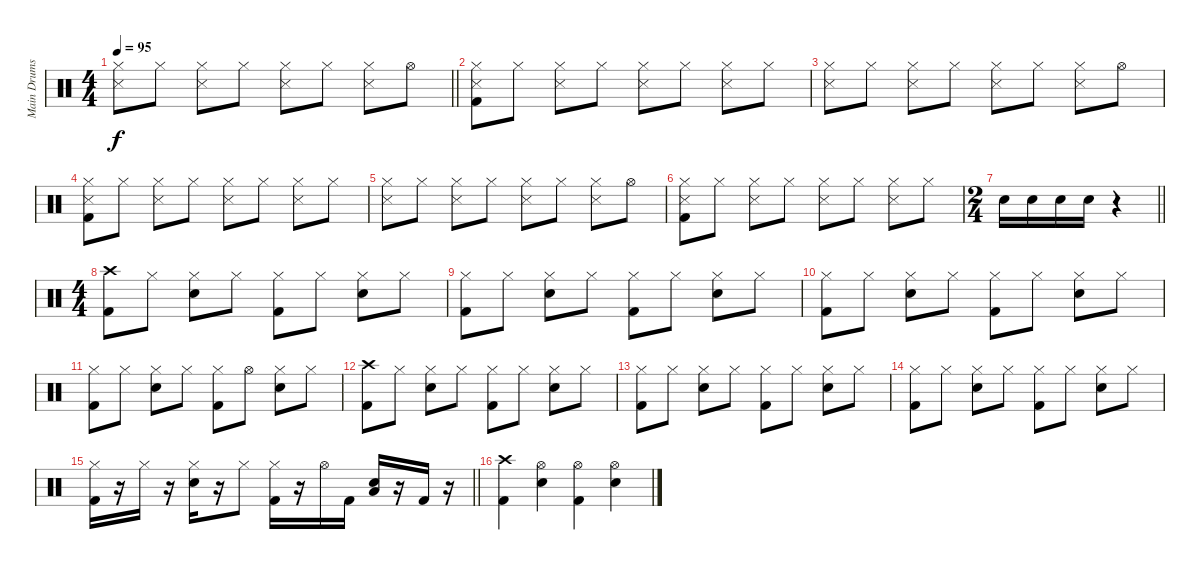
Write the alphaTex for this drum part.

\track ("Main Drums" "Main Drums") {instrument percussion}
\staff {score}
\articulation defaults
\ts (4 4)
\tempo 95
\clef neutral
\barLineRight lightlight
\ks c
("Hi-Hat (closed)" "Snare (side stick) 3").8{dy f} "Hi-Hat (closed)".8 ("Hi-Hat (closed)" "Snare (side stick) 3").8 "Hi-Hat (closed)".8 ("Hi-Hat (closed)" "Snare (side stick) 3").8 "Hi-Hat (closed)".8 ("Hi-Hat (closed)" "Snare (side stick) 3").8 "Hi-Hat (open)".8 |
("Hi-Hat (closed)" "Snare (side stick) 3" "Kick (hit) 2").8 "Hi-Hat (closed)".8 ("Hi-Hat (closed)" "Snare (side stick) 3").8 "Hi-Hat (closed)".8 ("Hi-Hat (closed)" "Snare (side stick) 3").8 "Hi-Hat (closed)".8 ("Hi-Hat (closed)" "Snare (side stick) 3").8 "Hi-Hat (closed)".8 |
("Hi-Hat (closed)" "Snare (side stick) 3").8 "Hi-Hat (closed)".8 ("Hi-Hat (closed)" "Snare (side stick) 3").8 "Hi-Hat (closed)".8 ("Hi-Hat (closed)" "Snare (side stick) 3").8 "Hi-Hat (closed)".8 ("Hi-Hat (closed)" "Snare (side stick) 3").8 "Hi-Hat (open)".8 |
("Hi-Hat (closed)" "Snare (side stick) 3" "Kick (hit) 2").8 "Hi-Hat (closed)".8 ("Hi-Hat (closed)" "Snare (side stick) 3").8 "Hi-Hat (closed)".8 ("Hi-Hat (closed)" "Snare (side stick) 3").8 "Hi-Hat (closed)".8 ("Hi-Hat (closed)" "Snare (side stick) 3").8 "Hi-Hat (closed)".8 |
("Hi-Hat (closed)" "Snare (side stick) 3").8 "Hi-Hat (closed)".8 ("Hi-Hat (closed)" "Snare (side stick) 3").8 "Hi-Hat (closed)".8 ("Hi-Hat (closed)" "Snare (side stick) 3").8 "Hi-Hat (closed)".8 ("Hi-Hat (closed)" "Snare (side stick) 3").8 "Hi-Hat (open)".8 |
("Hi-Hat (closed)" "Snare (side stick) 3" "Kick (hit) 2").8 "Hi-Hat (closed)".8 ("Hi-Hat (closed)" "Snare (side stick) 3").8 "Hi-Hat (closed)".8 ("Hi-Hat (closed)" "Snare (side stick) 3").8 "Hi-Hat (closed)".8 ("Hi-Hat (closed)" "Snare (side stick) 3").8 "Hi-Hat (closed)".8 |
\ts (2 4)
\barLineRight lightlight "Electric Snare (hit)".16 "Electric Snare (hit)".16 "Electric Snare (hit)".16 "Electric Snare (hit)".16
r.4 |
\ts (4 4)
("Crash high (hit)" "Kick (hit) 2").8 "Hi-Hat (closed)".8 ("Hi-Hat (closed)" "Electric Snare (hit)").8 "Hi-Hat (closed)".8 ("Hi-Hat (closed)" "Kick (hit) 2").8 "Hi-Hat (closed)".8 ("Hi-Hat (closed)" "Electric Snare (hit)").8 "Hi-Hat (closed)".8 |
("Hi-Hat (closed)" "Kick (hit) 2").8 "Hi-Hat (closed)".8 ("Hi-Hat (closed)" "Electric Snare (hit)").8 "Hi-Hat (closed)".8 ("Hi-Hat (closed)" "Kick (hit) 2").8 "Hi-Hat (closed)".8 ("Hi-Hat (closed)" "Electric Snare (hit)").8 "Hi-Hat (closed)".8 |
("Hi-Hat (closed)" "Kick (hit) 2").8 "Hi-Hat (closed)".8 ("Hi-Hat (closed)" "Electric Snare (hit)").8 "Hi-Hat (closed)".8 ("Hi-Hat (closed)" "Kick (hit) 2").8 "Hi-Hat (closed)".8 ("Hi-Hat (closed)" "Electric Snare (hit)").8 "Hi-Hat (closed)".8 |
("Hi-Hat (closed)" "Kick (hit) 2").8 "Hi-Hat (closed)".8 ("Hi-Hat (closed)" "Electric Snare (hit)").8 "Hi-Hat (closed)".8 ("Hi-Hat (closed)" "Kick (hit) 2").8 "Hi-Hat (open)".8 ("Hi-Hat (closed)" "Electric Snare (hit)").8 "Hi-Hat (closed)".8 |
("Crash high (hit)" "Kick (hit) 2").8 "Hi-Hat (closed)".8 ("Hi-Hat (closed)" "Electric Snare (hit)").8 "Hi-Hat (closed)".8 ("Hi-Hat (closed)" "Kick (hit) 2").8 "Hi-Hat (closed)".8 ("Hi-Hat (closed)" "Electric Snare (hit)").8 "Hi-Hat (closed)".8 |
("Hi-Hat (closed)" "Kick (hit) 2").8 "Hi-Hat (closed)".8 ("Hi-Hat (closed)" "Electric Snare (hit)").8 "Hi-Hat (closed)".8 ("Hi-Hat (closed)" "Kick (hit) 2").8 "Hi-Hat (closed)".8 ("Hi-Hat (closed)" "Electric Snare (hit)").8 "Hi-Hat (closed)".8 |
("Hi-Hat (closed)" "Kick (hit) 2").8 "Hi-Hat (closed)".8 ("Hi-Hat (closed)" "Electric Snare (hit)").8 "Hi-Hat (closed)".8 ("Hi-Hat (closed)" "Kick (hit) 2").8 "Hi-Hat (closed)".8 ("Hi-Hat (closed)" "Electric Snare (hit)").8 "Hi-Hat (closed)".8 |
\barLineRight lightlight
("Hi-Hat (closed)" "Kick (hit) 2").16 r.16 "Hi-Hat (closed)".16 r.16 ("Hi-Hat (closed)" "Electric Snare (hit)").16 r.16 "Hi-Hat (closed)".8 ("Hi-Hat (closed)" "Kick (hit) 2").16 r.16 "Hi-Hat (open)".16 "Kick (hit) 2".16 ("Low Floor Tom (hit)" "Electric Snare (hit)").16 r.16 "Kick (hit) 2".16 r.16 |
("Crash high (hit)" "Kick (hit) 2").4 ("Hi-Hat (open)" "Electric Snare (hit)").4 ("Hi-Hat (open)" "Kick (hit) 2").4 ("Hi-Hat (open)" "Electric Snare (hit)").4
